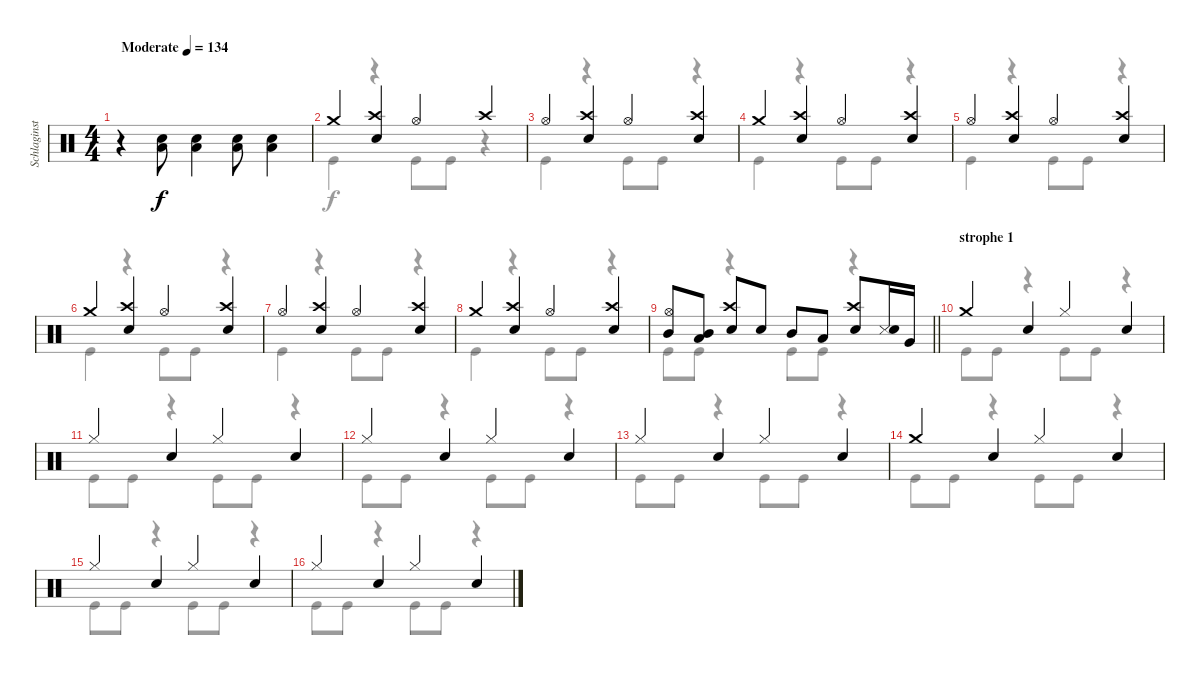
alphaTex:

\track ("Schlaginstrumente - Auswahl" "Schlaginst") {instrument percussion}
\staff {score}
\articulation defaults
\voice
\ts (4 4)
\tempo (134 "Moderate")
\clef neutral
\ks c
r.4{dy f} ("Snare (hit) 2" "Low Tom (hit)").8 ("Snare (hit) 2" "Low Tom (hit)").4 ("Snare (hit) 2" "Low Tom (hit)").8 ("Snare (hit) 2" "Low Tom (hit)").4 |
"Crash medium (hit)".4 ("Crash high (hit)" "Snare (hit) 2").4 "Hi-Hat (open)".4 "Crash high (hit)".4 |
"Hi-Hat (open)".4 ("Crash high (hit)" "Snare (hit) 2").4 "Hi-Hat (open)".4 ("Snare (hit) 2" "Crash high (hit)").4 |
"Crash medium (hit)".4 ("Crash high (hit)" "Snare (hit) 2").4 "Hi-Hat (open)".4 ("Crash high (hit)" "Snare (hit) 2").4 |
"Hi-Hat (open)".4 ("Crash high (hit)" "Snare (hit) 2").4 "Hi-Hat (open)".4 ("Snare (hit) 2" "Crash high (hit)").4 |
"Crash medium (hit)".4 ("Crash high (hit)" "Snare (hit) 2").4 "Hi-Hat (open)".4 ("Crash high (hit)" "Snare (hit) 2").4 |
"Hi-Hat (open)".4 ("Crash high (hit)" "Snare (hit) 2").4 "Hi-Hat (open)".4 ("Snare (hit) 2" "Crash high (hit)").4 |
"Crash medium (hit)".4 ("Crash high (hit)" "Snare (hit) 2").4 "Hi-Hat (open)".4 ("Crash high (hit)" "Snare (hit) 2").4 |
\barLineRight lightlight
("Mid Tom (hit)" "Hi-Hat (open)").8 ("Low Tom (hit)" "Mid Tom (hit)").8 ("Snare (hit) 2" "Crash high (hit)").8 "Snare (hit) 2".8 "Mid Tom (hit)".8 "Low Tom (hit)".8 ("Snare (hit) 2" "Crash high (hit)").8 ("Snare (side stick) 3" "Snare (hit) 2").16 "Very Low Tom (hit)".16 |
\section ("" "strophe 1")
"Crash medium (hit)".4 "Snare (hit) 2".4 "Hi-Hat (closed)".4 "Snare (hit) 2".4 |
"Hi-Hat (closed)".4 "Snare (hit) 2".4 "Hi-Hat (closed)".4 "Snare (hit) 2".4 |
"Hi-Hat (closed)".4 "Snare (hit) 2".4 "Hi-Hat (closed)".4 "Snare (hit) 2".4 |
"Hi-Hat (closed)".4 "Snare (hit) 2".4 "Hi-Hat (closed)".4 "Snare (hit) 2".4 |
"Crash medium (hit)".4 "Snare (hit) 2".4 "Hi-Hat (closed)".4 "Snare (hit) 2".4 |
"Hi-Hat (closed)".4 "Snare (hit) 2".4 "Hi-Hat (closed)".4 "Snare (hit) 2".4 |
"Hi-Hat (closed)".4 "Snare (hit) 2".4 "Hi-Hat (closed)".4 "Snare (hit) 2".4
\voice
\clef neutral
\ottava regular
\simile none
\ks c
|
"Kick (hit)".4 r.4 "Kick (hit)".8 "Kick (hit)".8 r.4 |
"Kick (hit)".4 r.4 "Kick (hit)".8 "Kick (hit)".8 r.4 |
"Kick (hit)".4 r.4 "Kick (hit)".8 "Kick (hit)".8 r.4 |
"Kick (hit)".4 r.4 "Kick (hit)".8 "Kick (hit)".8 r.4 |
"Kick (hit)".4 r.4 "Kick (hit)".8 "Kick (hit)".8 r.4 |
"Kick (hit)".4 r.4 "Kick (hit)".8 "Kick (hit)".8 r.4 |
"Kick (hit)".4 r.4 "Kick (hit)".8 "Kick (hit)".8 r.4 |
\barLineRight lightlight "Kick (hit)".8 "Kick (hit)".8
r.4 "Kick (hit)".8 "Kick (hit)".8 r.4 |
"Kick (hit)".8 "Kick (hit)".8 r.4 "Kick (hit)".8 "Kick (hit)".8 r.4 |
"Kick (hit)".8 "Kick (hit)".8 r.4 "Kick (hit)".8 "Kick (hit)".8 r.4 |
"Kick (hit)".8 "Kick (hit)".8 r.4 "Kick (hit)".8 "Kick (hit)".8 r.4 |
"Kick (hit)".8 "Kick (hit)".8 r.4 "Kick (hit)".8 "Kick (hit)".8 r.4 |
"Kick (hit)".8 "Kick (hit)".8 r.4 "Kick (hit)".8 "Kick (hit)".8 r.4 |
"Kick (hit)".8 "Kick (hit)".8 r.4 "Kick (hit)".8 "Kick (hit)".8 r.4 |
"Kick (hit)".8 "Kick (hit)".8 r.4 "Kick (hit)".8 "Kick (hit)".8 r.4
